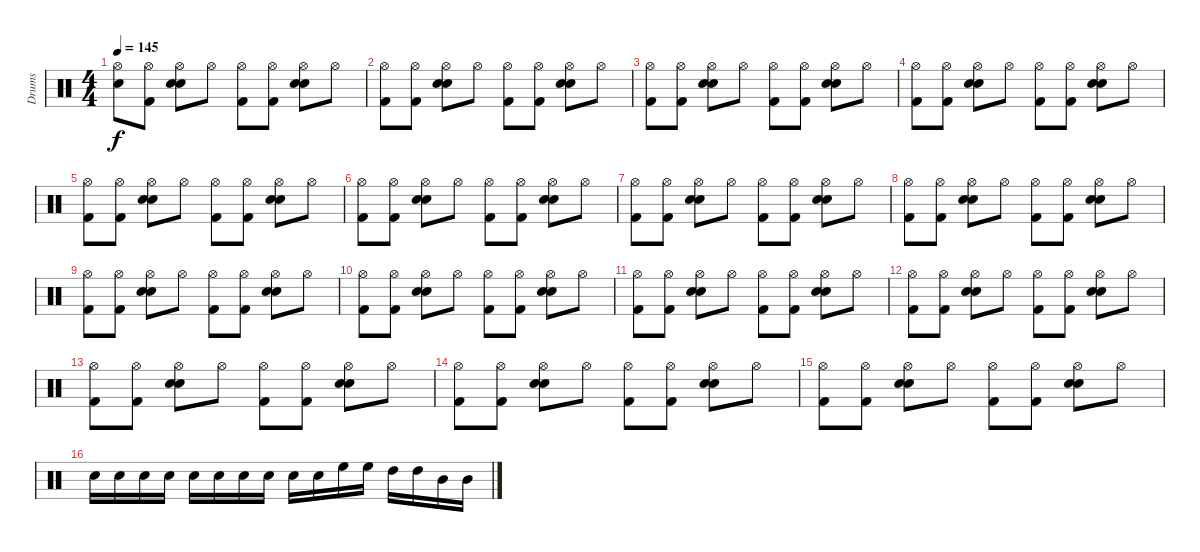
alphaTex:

\track ("Drums" "Drums") {instrument percussion}
\staff {score}
\articulation defaults
\ts (4 4)
\tempo 145
\clef neutral
\ks c
("Hi-Hat (open)" "Hand Clap (hit)").8{dy f} ("Hi-Hat (open)" "Kick (hit) 2").8 ("Hi-Hat (open)" "Electric Snare (hit)" "Snare (hit) 2").8 "Hi-Hat (open)".8 ("Hi-Hat (open)" "Kick (hit) 2").8 ("Hi-Hat (open)" "Kick (hit) 2").8 ("Hi-Hat (open)" "Electric Snare (hit)" "Snare (hit) 2").8 "Hi-Hat (open)".8 |
("Hi-Hat (open)" "Kick (hit) 2").8 ("Hi-Hat (open)" "Kick (hit) 2").8 ("Hi-Hat (open)" "Electric Snare (hit)" "Snare (hit) 2").8 "Hi-Hat (open)".8 ("Hi-Hat (open)" "Kick (hit) 2").8 ("Hi-Hat (open)" "Kick (hit) 2").8 ("Hi-Hat (open)" "Electric Snare (hit)" "Snare (hit) 2").8 "Hi-Hat (open)".8 |
("Hi-Hat (open)" "Kick (hit) 2").8 ("Hi-Hat (open)" "Kick (hit) 2").8 ("Hi-Hat (open)" "Electric Snare (hit)" "Snare (hit) 2").8 "Hi-Hat (open)".8 ("Hi-Hat (open)" "Kick (hit) 2").8 ("Hi-Hat (open)" "Kick (hit) 2").8 ("Hi-Hat (open)" "Electric Snare (hit)" "Snare (hit) 2").8 "Hi-Hat (open)".8 |
("Hi-Hat (open)" "Kick (hit) 2").8 ("Hi-Hat (open)" "Kick (hit) 2").8 ("Hi-Hat (open)" "Electric Snare (hit)" "Snare (hit) 2").8 "Hi-Hat (open)".8 ("Hi-Hat (open)" "Kick (hit) 2").8 ("Hi-Hat (open)" "Kick (hit) 2").8 ("Hi-Hat (open)" "Electric Snare (hit)" "Snare (hit) 2").8 "Hi-Hat (open)".8 |
("Hi-Hat (open)" "Kick (hit) 2").8 ("Hi-Hat (open)" "Kick (hit) 2").8 ("Hi-Hat (open)" "Electric Snare (hit)" "Snare (hit) 2").8 "Hi-Hat (open)".8 ("Hi-Hat (open)" "Kick (hit) 2").8 ("Hi-Hat (open)" "Kick (hit) 2").8 ("Hi-Hat (open)" "Electric Snare (hit)" "Snare (hit) 2").8 "Hi-Hat (open)".8 |
("Hi-Hat (open)" "Kick (hit) 2").8 ("Hi-Hat (open)" "Kick (hit) 2").8 ("Hi-Hat (open)" "Electric Snare (hit)" "Snare (hit) 2").8 "Hi-Hat (open)".8 ("Hi-Hat (open)" "Kick (hit) 2").8 ("Hi-Hat (open)" "Kick (hit) 2").8 ("Hi-Hat (open)" "Electric Snare (hit)" "Snare (hit) 2").8 "Hi-Hat (open)".8 |
("Hi-Hat (open)" "Kick (hit) 2").8 ("Hi-Hat (open)" "Kick (hit) 2").8 ("Hi-Hat (open)" "Electric Snare (hit)" "Snare (hit) 2").8 "Hi-Hat (open)".8 ("Hi-Hat (open)" "Kick (hit) 2").8 ("Hi-Hat (open)" "Kick (hit) 2").8 ("Hi-Hat (open)" "Electric Snare (hit)" "Snare (hit) 2").8 "Hi-Hat (open)".8 |
("Hi-Hat (open)" "Kick (hit) 2").8 ("Hi-Hat (open)" "Kick (hit) 2").8 ("Hi-Hat (open)" "Electric Snare (hit)" "Snare (hit) 2").8 "Hi-Hat (open)".8 ("Hi-Hat (open)" "Kick (hit) 2").8 ("Hi-Hat (open)" "Kick (hit) 2").8 ("Hi-Hat (open)" "Electric Snare (hit)" "Snare (hit) 2").8 "Hi-Hat (open)".8 |
("Hi-Hat (open)" "Kick (hit) 2").8 ("Hi-Hat (open)" "Kick (hit) 2").8 ("Hi-Hat (open)" "Electric Snare (hit)" "Snare (hit) 2").8 "Hi-Hat (open)".8 ("Hi-Hat (open)" "Kick (hit) 2").8 ("Hi-Hat (open)" "Kick (hit) 2").8 ("Hi-Hat (open)" "Electric Snare (hit)" "Snare (hit) 2").8 "Hi-Hat (open)".8 |
("Hi-Hat (open)" "Kick (hit) 2").8 ("Hi-Hat (open)" "Kick (hit) 2").8 ("Hi-Hat (open)" "Electric Snare (hit)" "Snare (hit) 2").8 "Hi-Hat (open)".8 ("Hi-Hat (open)" "Kick (hit) 2").8 ("Hi-Hat (open)" "Kick (hit) 2").8 ("Hi-Hat (open)" "Electric Snare (hit)" "Snare (hit) 2").8 "Hi-Hat (open)".8 |
("Hi-Hat (open)" "Kick (hit) 2").8 ("Hi-Hat (open)" "Kick (hit) 2").8 ("Hi-Hat (open)" "Electric Snare (hit)" "Snare (hit) 2").8 "Hi-Hat (open)".8 ("Hi-Hat (open)" "Kick (hit) 2").8 ("Hi-Hat (open)" "Kick (hit) 2").8 ("Hi-Hat (open)" "Electric Snare (hit)" "Snare (hit) 2").8 "Hi-Hat (open)".8 |
("Hi-Hat (open)" "Kick (hit) 2").8 ("Hi-Hat (open)" "Kick (hit) 2").8 ("Hi-Hat (open)" "Electric Snare (hit)" "Snare (hit) 2").8 "Hi-Hat (open)".8 ("Hi-Hat (open)" "Kick (hit) 2").8 ("Hi-Hat (open)" "Kick (hit) 2").8 ("Hi-Hat (open)" "Electric Snare (hit)" "Snare (hit) 2").8 "Hi-Hat (open)".8 |
("Hi-Hat (open)" "Kick (hit) 2").8 ("Hi-Hat (open)" "Kick (hit) 2").8 ("Hi-Hat (open)" "Electric Snare (hit)" "Snare (hit) 2").8 "Hi-Hat (open)".8 ("Hi-Hat (open)" "Kick (hit) 2").8 ("Hi-Hat (open)" "Kick (hit) 2").8 ("Hi-Hat (open)" "Electric Snare (hit)" "Snare (hit) 2").8 "Hi-Hat (open)".8 |
("Hi-Hat (open)" "Kick (hit) 2").8 ("Hi-Hat (open)" "Kick (hit) 2").8 ("Hi-Hat (open)" "Electric Snare (hit)" "Snare (hit) 2").8 "Hi-Hat (open)".8 ("Hi-Hat (open)" "Kick (hit) 2").8 ("Hi-Hat (open)" "Kick (hit) 2").8 ("Hi-Hat (open)" "Electric Snare (hit)" "Snare (hit) 2").8 "Hi-Hat (open)".8 |
("Hi-Hat (open)" "Kick (hit) 2").8 ("Hi-Hat (open)" "Kick (hit) 2").8 ("Hi-Hat (open)" "Electric Snare (hit)" "Snare (hit) 2").8 "Hi-Hat (open)".8 ("Hi-Hat (open)" "Kick (hit) 2").8 ("Hi-Hat (open)" "Kick (hit) 2").8 ("Hi-Hat (open)" "Electric Snare (hit)" "Snare (hit) 2").8 "Hi-Hat (open)".8 |
"Electric Snare (hit)".16{volume 16} "Electric Snare (hit)".16 "Electric Snare (hit)".16 "Electric Snare (hit)".16 "Electric Snare (hit)".16 "Electric Snare (hit)".16 "Electric Snare (hit)".16 "Electric Snare (hit)".16 "Electric Snare (hit)".16 "Electric Snare (hit)".16 "High Floor Tom (hit)".16 "High Floor Tom (hit)".16 "High Tom (hit)".16 "High Tom (hit)".16 "Mid Tom (hit)".16 "Mid Tom (hit)".16
